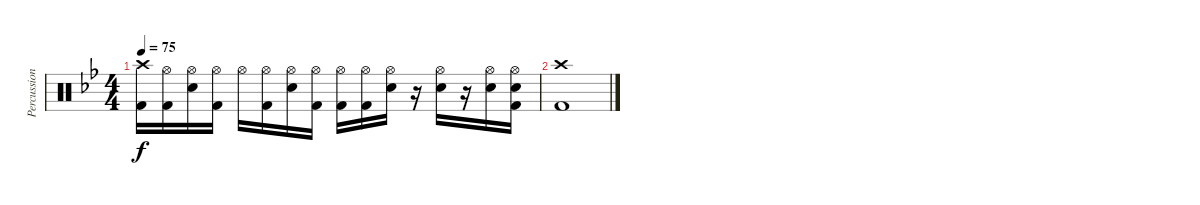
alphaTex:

\track ("Percussion" "Percussion") {instrument percussion}
\staff {score}
\articulation defaults
\ts (4 4)
\tempo 75
\clef neutral
\ks bb
("Crash high (hit)" "Kick (hit) 2").16{dy f} ("Hi-Hat (open)" "Kick (hit) 2").16 ("Hi-Hat (open)" "Electric Snare (hit)").16 ("Hi-Hat (open)" "Kick (hit) 2").16 "Hi-Hat (open)".16 ("Hi-Hat (open)" "Kick (hit) 2").16 ("Hi-Hat (open)" "Electric Snare (hit)").16 ("Hi-Hat (open)" "Kick (hit) 2").16 ("Hi-Hat (open)" "Kick (hit) 2").16 ("Hi-Hat (open)" "Kick (hit) 2").16 ("Hi-Hat (open)" "Electric Snare (hit)").16 r.16 ("Hi-Hat (open)" "Electric Snare (hit)").16 r.16 ("Hi-Hat (open)" "Electric Snare (hit)").16 ("Hi-Hat (open)" "Electric Snare (hit)" "Kick (hit) 2").16 |
("Crash high (hit)" "Kick (hit) 2").1
